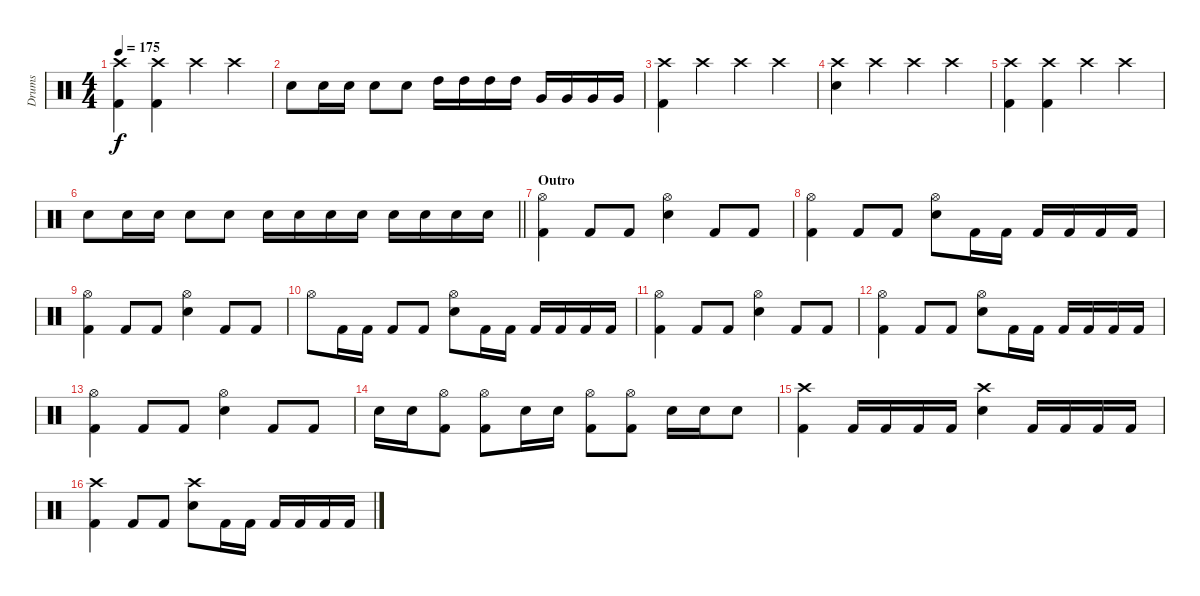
\track ("Drums" "Drums") {instrument percussion}
\staff {score}
\articulation defaults
\ts (4 4)
\tempo 175
\clef neutral
\ks c
("Crash high (hit)" "Kick (hit) 2").4{dy f} ("Crash high (hit)" "Kick (hit) 2").4 "Crash high (hit)".4 "Crash high (hit)".4 |
"Snare (hit) 2".8 "Snare (hit) 2".16 "Snare (hit) 2".16 "Snare (hit) 2".8 "Snare (hit) 2".8 "High Tom (hit)".16 "High Tom (hit)".16 "High Tom (hit)".16 "High Tom (hit)".16 "Very Low Tom (hit)".16 "Very Low Tom (hit)".16 "Very Low Tom (hit)".16 "Very Low Tom (hit)".16 |
("Crash high (hit)" "Kick (hit) 2").4 "Crash high (hit)".4 "Crash high (hit)".4 "Crash high (hit)".4 |
("Crash high (hit)" "Snare (hit) 2").4 "Crash high (hit)".4 "Crash high (hit)".4 "Crash high (hit)".4 |
("Crash high (hit)" "Kick (hit) 2").4 ("Crash high (hit)" "Kick (hit) 2").4 "Crash high (hit)".4 "Crash high (hit)".4 |
\barLineRight lightlight "Snare (hit) 2".8 "Snare (hit) 2".16 "Snare (hit) 2".16 "Snare (hit) 2".8 "Snare (hit) 2".8 "Snare (hit) 2".16 "Snare (hit) 2".16 "Snare (hit) 2".16 "Snare (hit) 2".16 "Snare (hit) 2".16 "Snare (hit) 2".16 "Snare (hit) 2".16 "Snare (hit) 2".16
|
\section ("" "Outro")
("Hi-Hat (open)" "Kick (hit) 2").4 "Kick (hit) 2".8 "Kick (hit) 2".8 ("Hi-Hat (open)" "Snare (hit) 2").4 "Kick (hit) 2".8 "Kick (hit) 2".8 |
("Hi-Hat (open)" "Kick (hit) 2").4 "Kick (hit) 2".8 "Kick (hit) 2".8 ("Hi-Hat (open)" "Snare (hit) 2").8 "Kick (hit) 2".16 "Kick (hit) 2".16 "Kick (hit) 2".16 "Kick (hit) 2".16 "Kick (hit) 2".16 "Kick (hit) 2".16 |
("Hi-Hat (open)" "Kick (hit) 2").4 "Kick (hit) 2".8 "Kick (hit) 2".8 ("Hi-Hat (open)" "Snare (hit) 2").4 "Kick (hit) 2".8 "Kick (hit) 2".8 |
"Hi-Hat (open)".8 "Kick (hit) 2".16 "Kick (hit) 2".16 "Kick (hit) 2".8 "Kick (hit) 2".8 ("Hi-Hat (open)" "Snare (hit) 2").8 "Kick (hit) 2".16 "Kick (hit) 2".16 "Kick (hit) 2".16 "Kick (hit) 2".16 "Kick (hit) 2".16 "Kick (hit) 2".16 |
("Hi-Hat (open)" "Kick (hit) 2").4 "Kick (hit) 2".8 "Kick (hit) 2".8 ("Hi-Hat (open)" "Snare (hit) 2").4 "Kick (hit) 2".8 "Kick (hit) 2".8 |
("Hi-Hat (open)" "Kick (hit) 2").4 "Kick (hit) 2".8 "Kick (hit) 2".8 ("Hi-Hat (open)" "Snare (hit) 2").8 "Kick (hit) 2".16 "Kick (hit) 2".16 "Kick (hit) 2".16 "Kick (hit) 2".16 "Kick (hit) 2".16 "Kick (hit) 2".16 |
("Hi-Hat (open)" "Kick (hit) 2").4 "Kick (hit) 2".8 "Kick (hit) 2".8 ("Hi-Hat (open)" "Snare (hit) 2").4 "Kick (hit) 2".8 "Kick (hit) 2".8 |
"Snare (hit) 2".16 "Snare (hit) 2".16 ("Hi-Hat (open)" "Kick (hit) 2").8 ("Hi-Hat (open)" "Kick (hit) 2").8 "Snare (hit) 2".16 "Snare (hit) 2".16 ("Hi-Hat (open)" "Kick (hit) 2").8 ("Hi-Hat (open)" "Kick (hit) 2").8 "Snare (hit) 2".16 "Snare (hit) 2".16 "Snare (hit) 2".8 |
("Crash high (hit)" "Kick (hit) 2").4 "Kick (hit) 2".16 "Kick (hit) 2".16 "Kick (hit) 2".16 "Kick (hit) 2".16 ("Crash high (hit)" "Snare (hit) 2").4 "Kick (hit) 2".16 "Kick (hit) 2".16 "Kick (hit) 2".16 "Kick (hit) 2".16 |
("Crash high (hit)" "Kick (hit) 2").4 "Kick (hit) 2".8 "Kick (hit) 2".8 ("Crash high (hit)" "Snare (hit) 2").8 "Kick (hit) 2".16 "Kick (hit) 2".16 "Kick (hit) 2".16 "Kick (hit) 2".16 "Kick (hit) 2".16 "Kick (hit) 2".16
